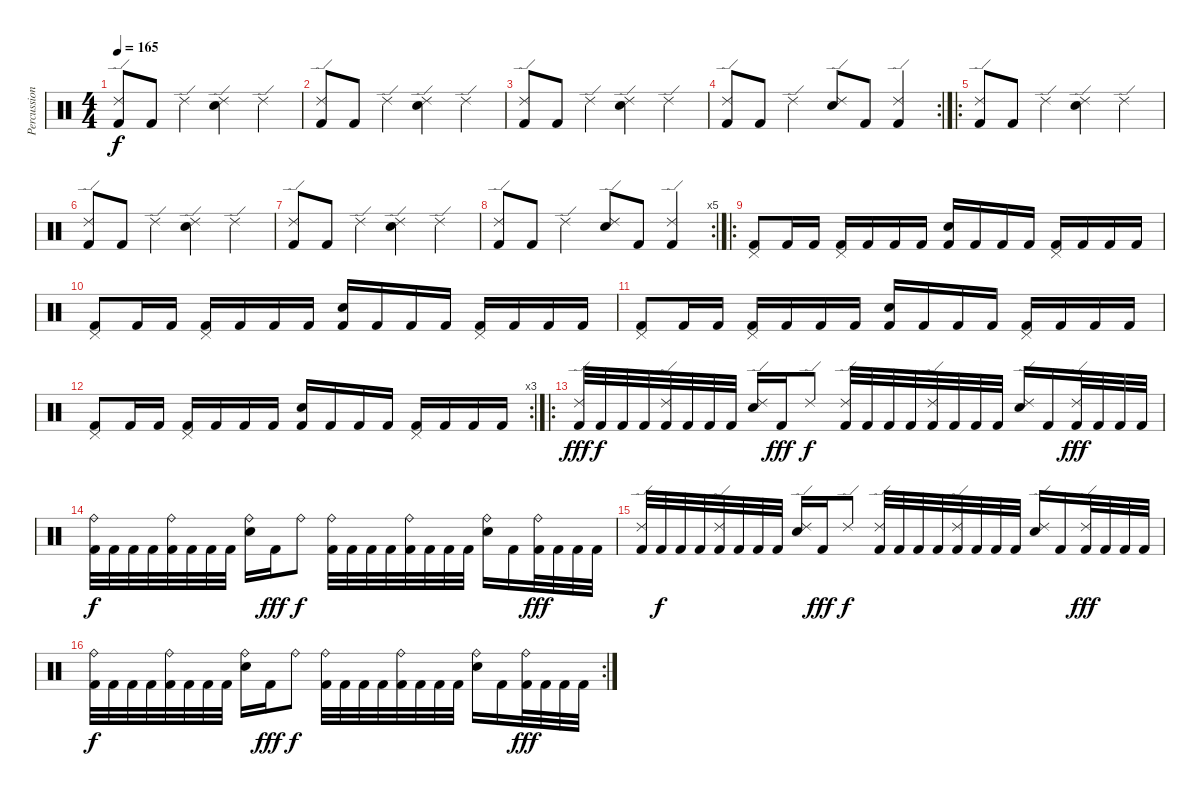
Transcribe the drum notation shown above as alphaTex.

\track ("Percussion" "Percussion") {instrument percussion}
\staff {score}
\articulation defaults
\ts (4 4)
\tempo 165
\clef neutral
\ks c
("Ride (edge) 2" "Kick (hit) 2").8{dy f} "Kick (hit) 2".8 "Ride (edge) 2".4 ("Ride (edge) 2" "Electric Snare (hit)").4 "Ride (edge) 2".4 |
("Ride (edge) 2" "Kick (hit) 2").8 "Kick (hit) 2".8 "Ride (edge) 2".4 ("Ride (edge) 2" "Electric Snare (hit)").4 "Ride (edge) 2".4 |
("Ride (edge) 2" "Kick (hit) 2").8 "Kick (hit) 2".8 "Ride (edge) 2".4 ("Ride (edge) 2" "Electric Snare (hit)").4 "Ride (edge) 2".4 |
\rc 2
("Ride (edge) 2" "Kick (hit) 2").8 "Kick (hit) 2".8 "Ride (edge) 2".4 ("Ride (edge) 2" "Electric Snare (hit)").8 "Kick (hit) 2".8 ("Ride (edge) 2" "Kick (hit) 2").4 |
\ro
("Ride (edge) 2" "Kick (hit) 2").8 "Kick (hit) 2".8 "Ride (edge) 2".4 ("Ride (edge) 2" "Electric Snare (hit)").4 "Ride (edge) 2".4 |
("Ride (edge) 2" "Kick (hit) 2").8 "Kick (hit) 2".8 "Ride (edge) 2".4 ("Ride (edge) 2" "Electric Snare (hit)").4 "Ride (edge) 2".4 |
("Ride (edge) 2" "Kick (hit) 2").8 "Kick (hit) 2".8 "Ride (edge) 2".4 ("Ride (edge) 2" "Electric Snare (hit)").4 "Ride (edge) 2".4 |
\rc 5
("Ride (edge) 2" "Kick (hit) 2").8 "Kick (hit) 2".8 "Ride (edge) 2".4 ("Ride (edge) 2" "Electric Snare (hit)").8 "Kick (hit) 2".8 ("Ride (edge) 2" "Kick (hit) 2").4 |
\ro
("Pedal Hi-Hat (hit)" "Kick (hit) 2").8 "Kick (hit) 2".16 "Kick (hit) 2".16 ("Pedal Hi-Hat (hit)" "Kick (hit) 2").16 "Kick (hit) 2".16 "Kick (hit) 2".16 "Kick (hit) 2".16 ("Electric Snare (hit)" "Kick (hit) 2").16 "Kick (hit) 2".16 "Kick (hit) 2".16 "Kick (hit) 2".16 ("Pedal Hi-Hat (hit)" "Kick (hit) 2").16 "Kick (hit) 2".16 "Kick (hit) 2".16 "Kick (hit) 2".16 |
("Pedal Hi-Hat (hit)" "Kick (hit) 2").8 "Kick (hit) 2".16 "Kick (hit) 2".16 ("Pedal Hi-Hat (hit)" "Kick (hit) 2").16 "Kick (hit) 2".16 "Kick (hit) 2".16 "Kick (hit) 2".16 ("Electric Snare (hit)" "Kick (hit) 2").16 "Kick (hit) 2".16 "Kick (hit) 2".16 "Kick (hit) 2".16 ("Pedal Hi-Hat (hit)" "Kick (hit) 2").16 "Kick (hit) 2".16 "Kick (hit) 2".16 "Kick (hit) 2".16 |
("Pedal Hi-Hat (hit)" "Kick (hit) 2").8 "Kick (hit) 2".16 "Kick (hit) 2".16 ("Pedal Hi-Hat (hit)" "Kick (hit) 2").16 "Kick (hit) 2".16 "Kick (hit) 2".16 "Kick (hit) 2".16 ("Electric Snare (hit)" "Kick (hit) 2").16 "Kick (hit) 2".16 "Kick (hit) 2".16 "Kick (hit) 2".16 ("Pedal Hi-Hat (hit)" "Kick (hit) 2").16 "Kick (hit) 2".16 "Kick (hit) 2".16 "Kick (hit) 2".16 |
\rc 3
("Pedal Hi-Hat (hit)" "Kick (hit) 2").8 "Kick (hit) 2".16 "Kick (hit) 2".16 ("Pedal Hi-Hat (hit)" "Kick (hit) 2").16 "Kick (hit) 2".16 "Kick (hit) 2".16 "Kick (hit) 2".16 ("Electric Snare (hit)" "Kick (hit) 2").16 "Kick (hit) 2".16 "Kick (hit) 2".16 "Kick (hit) 2".16 ("Pedal Hi-Hat (hit)" "Kick (hit) 2").16 "Kick (hit) 2".16 "Kick (hit) 2".16 "Kick (hit) 2".16 |
\ro
("Ride (edge) 2" "Kick (hit) 2").32{dy fff} "Kick (hit) 2".32{dy f} "Kick (hit) 2".32 "Kick (hit) 2".32 ("Ride (edge) 2" "Kick (hit) 2").32 "Kick (hit) 2".32 "Kick (hit) 2".32 "Kick (hit) 2".32 ("Ride (edge) 2" "Electric Snare (hit)").16 "Kick (hit) 2".16{dy fff} "Ride (edge) 2".8{dy f} ("Ride (edge) 2" "Kick (hit) 2").32 "Kick (hit) 2".32 "Kick (hit) 2".32 "Kick (hit) 2".32 ("Ride (edge) 2" "Kick (hit) 2").32 "Kick (hit) 2".32 "Kick (hit) 2".32 "Kick (hit) 2".32 ("Ride (edge) 2" "Electric Snare (hit)").16 "Kick (hit) 2".16 ("Ride (edge) 2" "Kick (hit) 2").32{dy fff} "Kick (hit) 2".32 "Kick (hit) 2".32 "Kick (hit) 2".32 |
("Ride (bell)" "Kick (hit) 2").32{dy f} "Kick (hit) 2".32 "Kick (hit) 2".32 "Kick (hit) 2".32 ("Ride (bell)" "Kick (hit) 2").32 "Kick (hit) 2".32 "Kick (hit) 2".32 "Kick (hit) 2".32 ("Ride (bell)" "Electric Snare (hit)").16 "Kick (hit) 2".16{dy fff} "Ride (bell)".8{dy f} ("Ride (bell)" "Kick (hit) 2").32 "Kick (hit) 2".32 "Kick (hit) 2".32 "Kick (hit) 2".32 ("Ride (bell)" "Kick (hit) 2").32 "Kick (hit) 2".32 "Kick (hit) 2".32 "Kick (hit) 2".32 ("Ride (bell)" "Electric Snare (hit)").16 "Kick (hit) 2".16 ("Ride (bell)" "Kick (hit) 2").32{dy fff} "Kick (hit) 2".32 "Kick (hit) 2".32 "Kick (hit) 2".32 |
("Ride (edge) 2" "Kick (hit) 2").32 "Kick (hit) 2".32{dy f} "Kick (hit) 2".32 "Kick (hit) 2".32 ("Ride (edge) 2" "Kick (hit) 2").32 "Kick (hit) 2".32 "Kick (hit) 2".32 "Kick (hit) 2".32 ("Ride (edge) 2" "Electric Snare (hit)").16 "Kick (hit) 2".16{dy fff} "Ride (edge) 2".8{dy f} ("Ride (edge) 2" "Kick (hit) 2").32 "Kick (hit) 2".32 "Kick (hit) 2".32 "Kick (hit) 2".32 ("Ride (edge) 2" "Kick (hit) 2").32 "Kick (hit) 2".32 "Kick (hit) 2".32 "Kick (hit) 2".32 ("Ride (edge) 2" "Electric Snare (hit)").16 "Kick (hit) 2".16 ("Ride (edge) 2" "Kick (hit) 2").32{dy fff} "Kick (hit) 2".32 "Kick (hit) 2".32 "Kick (hit) 2".32 |
\rc 2
("Ride (bell)" "Kick (hit) 2").32{dy f} "Kick (hit) 2".32 "Kick (hit) 2".32 "Kick (hit) 2".32 ("Ride (bell)" "Kick (hit) 2").32 "Kick (hit) 2".32 "Kick (hit) 2".32 "Kick (hit) 2".32 ("Ride (bell)" "Electric Snare (hit)").16 "Kick (hit) 2".16{dy fff} "Ride (bell)".8{dy f} ("Ride (bell)" "Kick (hit) 2").32 "Kick (hit) 2".32 "Kick (hit) 2".32 "Kick (hit) 2".32 ("Ride (bell)" "Kick (hit) 2").32 "Kick (hit) 2".32 "Kick (hit) 2".32 "Kick (hit) 2".32 ("Ride (bell)" "Electric Snare (hit)").16 "Kick (hit) 2".16 ("Ride (bell)" "Kick (hit) 2").32{dy fff} "Kick (hit) 2".32 "Kick (hit) 2".32 "Kick (hit) 2".32
